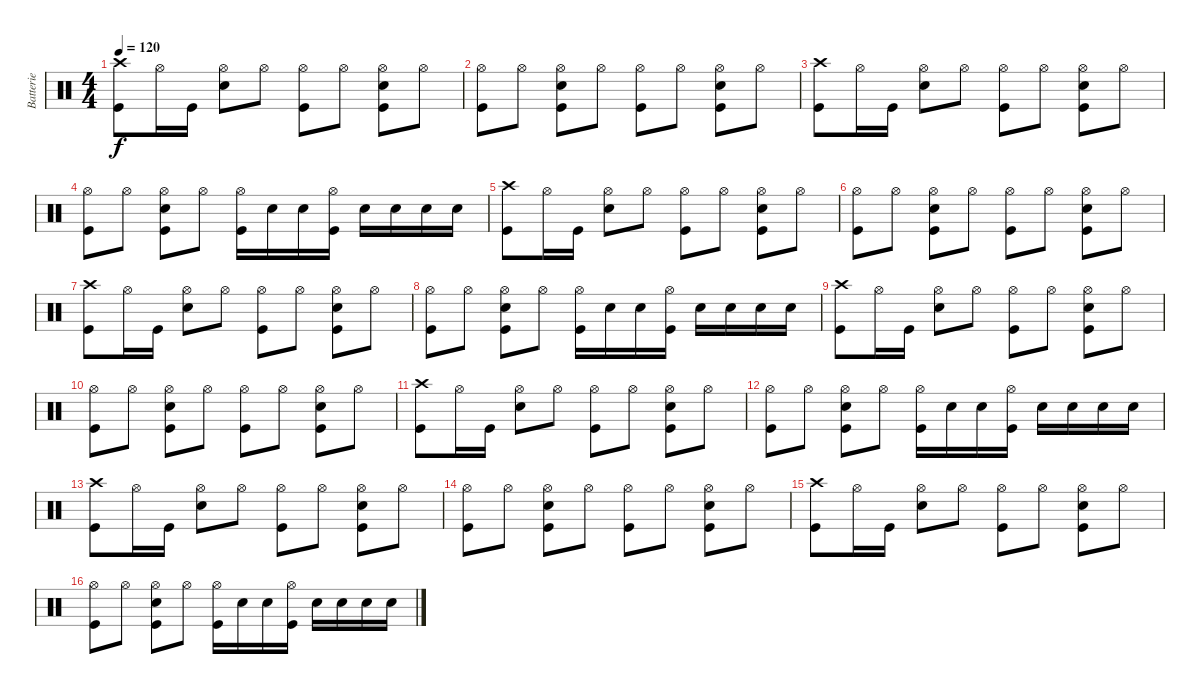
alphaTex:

\track ("Batterie" "Batterie") {instrument percussion}
\staff {score}
\articulation defaults
\ts (4 4)
\tempo 120
\clef neutral
\ks c
("Kick (hit)" "Crash high (hit)").8{dy f} "Hi-Hat (open)".16 "Kick (hit)".16 ("Hi-Hat (open)" "Snare (hit) 2").8 "Hi-Hat (open)".8 ("Hi-Hat (open)" "Kick (hit)").8 "Hi-Hat (open)".8 ("Snare (hit) 2" "Hi-Hat (open)" "Kick (hit)").8 "Hi-Hat (open)".8 |
("Kick (hit)" "Hi-Hat (open)").8 "Hi-Hat (open)".8 ("Hi-Hat (open)" "Snare (hit) 2" "Kick (hit)").8 "Hi-Hat (open)".8 ("Hi-Hat (open)" "Kick (hit)").8 "Hi-Hat (open)".8 ("Snare (hit) 2" "Hi-Hat (open)" "Kick (hit)").8 "Hi-Hat (open)".8 |
("Kick (hit)" "Crash high (hit)").8 "Hi-Hat (open)".16 "Kick (hit)".16 ("Hi-Hat (open)" "Snare (hit) 2").8 "Hi-Hat (open)".8 ("Hi-Hat (open)" "Kick (hit)").8 "Hi-Hat (open)".8 ("Snare (hit) 2" "Hi-Hat (open)" "Kick (hit)").8 "Hi-Hat (open)".8 |
("Kick (hit)" "Hi-Hat (open)").8 "Hi-Hat (open)".8 ("Hi-Hat (open)" "Snare (hit) 2" "Kick (hit)").8 "Hi-Hat (open)".8 ("Hi-Hat (open)" "Kick (hit)").16 "Snare (hit) 2".16 "Snare (hit) 2".16 ("Hi-Hat (open)" "Kick (hit)").16 "Snare (hit) 2".16 "Snare (hit) 2".16 "Snare (hit) 2".16 "Snare (hit) 2".16 |
("Kick (hit)" "Crash high (hit)").8 "Hi-Hat (open)".16 "Kick (hit)".16 ("Hi-Hat (open)" "Snare (hit) 2").8 "Hi-Hat (open)".8 ("Hi-Hat (open)" "Kick (hit)").8 "Hi-Hat (open)".8 ("Snare (hit) 2" "Hi-Hat (open)" "Kick (hit)").8 "Hi-Hat (open)".8 |
("Kick (hit)" "Hi-Hat (open)").8 "Hi-Hat (open)".8 ("Hi-Hat (open)" "Snare (hit) 2" "Kick (hit)").8 "Hi-Hat (open)".8 ("Hi-Hat (open)" "Kick (hit)").8 "Hi-Hat (open)".8 ("Snare (hit) 2" "Hi-Hat (open)" "Kick (hit)").8 "Hi-Hat (open)".8 |
("Kick (hit)" "Crash high (hit)").8 "Hi-Hat (open)".16 "Kick (hit)".16 ("Hi-Hat (open)" "Snare (hit) 2").8 "Hi-Hat (open)".8 ("Hi-Hat (open)" "Kick (hit)").8 "Hi-Hat (open)".8 ("Snare (hit) 2" "Hi-Hat (open)" "Kick (hit)").8 "Hi-Hat (open)".8 |
("Kick (hit)" "Hi-Hat (open)").8 "Hi-Hat (open)".8 ("Hi-Hat (open)" "Snare (hit) 2" "Kick (hit)").8 "Hi-Hat (open)".8 ("Hi-Hat (open)" "Kick (hit)").16 "Snare (hit) 2".16 "Snare (hit) 2".16 ("Hi-Hat (open)" "Kick (hit)").16 "Snare (hit) 2".16 "Snare (hit) 2".16 "Snare (hit) 2".16 "Snare (hit) 2".16 |
("Kick (hit)" "Crash high (hit)").8 "Hi-Hat (open)".16 "Kick (hit)".16 ("Hi-Hat (open)" "Snare (hit) 2").8 "Hi-Hat (open)".8 ("Hi-Hat (open)" "Kick (hit)").8 "Hi-Hat (open)".8 ("Snare (hit) 2" "Hi-Hat (open)" "Kick (hit)").8 "Hi-Hat (open)".8 |
("Kick (hit)" "Hi-Hat (open)").8 "Hi-Hat (open)".8 ("Hi-Hat (open)" "Snare (hit) 2" "Kick (hit)").8 "Hi-Hat (open)".8 ("Hi-Hat (open)" "Kick (hit)").8 "Hi-Hat (open)".8 ("Snare (hit) 2" "Hi-Hat (open)" "Kick (hit)").8 "Hi-Hat (open)".8 |
("Kick (hit)" "Crash high (hit)").8 "Hi-Hat (open)".16 "Kick (hit)".16 ("Hi-Hat (open)" "Snare (hit) 2").8 "Hi-Hat (open)".8 ("Hi-Hat (open)" "Kick (hit)").8 "Hi-Hat (open)".8 ("Snare (hit) 2" "Hi-Hat (open)" "Kick (hit)").8 "Hi-Hat (open)".8 |
("Kick (hit)" "Hi-Hat (open)").8 "Hi-Hat (open)".8 ("Hi-Hat (open)" "Snare (hit) 2" "Kick (hit)").8 "Hi-Hat (open)".8 ("Hi-Hat (open)" "Kick (hit)").16 "Snare (hit) 2".16 "Snare (hit) 2".16 ("Hi-Hat (open)" "Kick (hit)").16 "Snare (hit) 2".16 "Snare (hit) 2".16 "Snare (hit) 2".16 "Snare (hit) 2".16 |
("Kick (hit)" "Crash high (hit)").8 "Hi-Hat (open)".16 "Kick (hit)".16 ("Hi-Hat (open)" "Snare (hit) 2").8 "Hi-Hat (open)".8 ("Hi-Hat (open)" "Kick (hit)").8 "Hi-Hat (open)".8 ("Snare (hit) 2" "Hi-Hat (open)" "Kick (hit)").8 "Hi-Hat (open)".8 |
("Kick (hit)" "Hi-Hat (open)").8 "Hi-Hat (open)".8 ("Hi-Hat (open)" "Snare (hit) 2" "Kick (hit)").8 "Hi-Hat (open)".8 ("Hi-Hat (open)" "Kick (hit)").8 "Hi-Hat (open)".8 ("Snare (hit) 2" "Hi-Hat (open)" "Kick (hit)").8 "Hi-Hat (open)".8 |
("Kick (hit)" "Crash high (hit)").8 "Hi-Hat (open)".16 "Kick (hit)".16 ("Hi-Hat (open)" "Snare (hit) 2").8 "Hi-Hat (open)".8 ("Hi-Hat (open)" "Kick (hit)").8 "Hi-Hat (open)".8 ("Snare (hit) 2" "Hi-Hat (open)" "Kick (hit)").8 "Hi-Hat (open)".8 |
("Kick (hit)" "Hi-Hat (open)").8 "Hi-Hat (open)".8 ("Hi-Hat (open)" "Snare (hit) 2" "Kick (hit)").8 "Hi-Hat (open)".8 ("Hi-Hat (open)" "Kick (hit)").16 "Snare (hit) 2".16 "Snare (hit) 2".16 ("Hi-Hat (open)" "Kick (hit)").16 "Snare (hit) 2".16 "Snare (hit) 2".16 "Snare (hit) 2".16 "Snare (hit) 2".16
